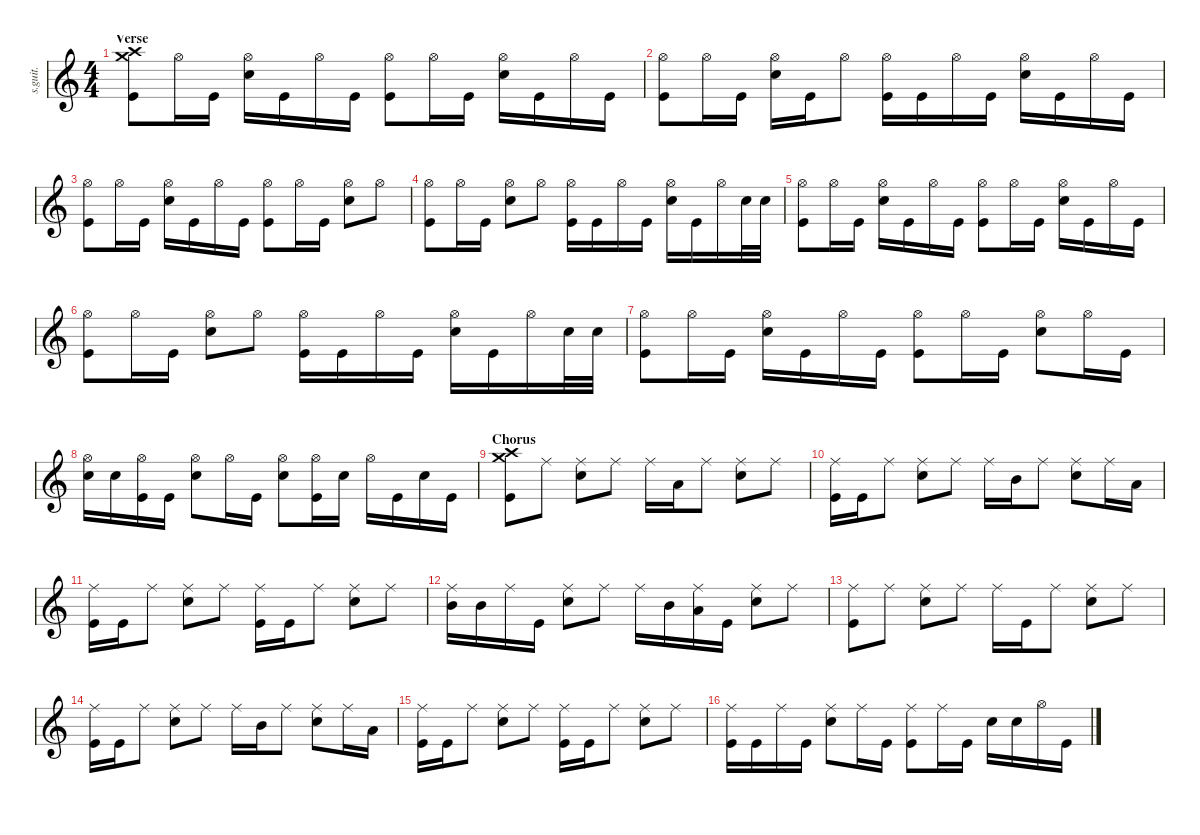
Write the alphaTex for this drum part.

\defaultSystemsLayout 4
\hideDynamics
\bracketExtendMode nobrackets
\track ("Abe Cunningham" "s.guit.") {instrument percussion}
\staff {score}
\articulation defaults
\ts (4 4)
\section ("" "Verse")
\tempo (93 hide)
\clef g2
\ks c
("Crash high (hit)" "Kick (hit)" "Crash medium (hit)").8{lyrics (0 "") lyrics (1 "") lyrics (2 "") lyrics (3 "") lyrics (4 "") dy fff} "Hi-Hat (open)".16{lyrics (0 "") lyrics (1 "") lyrics (2 "") lyrics (3 "") lyrics (4 "")} "Kick (hit)".16{lyrics (0 "") lyrics (1 "") lyrics (2 "") lyrics (3 "") lyrics (4 "")} ("Snare (hit) 2" "Hi-Hat (open)").16{lyrics (0 "") lyrics (1 "") lyrics (2 "") lyrics (3 "") lyrics (4 "")} "Kick (hit)".16{lyrics (0 "") lyrics (1 "") lyrics (2 "") lyrics (3 "") lyrics (4 "")} "Hi-Hat (open)".16{lyrics (0 "") lyrics (1 "") lyrics (2 "") lyrics (3 "") lyrics (4 "")} "Kick (hit)".16{lyrics (0 "") lyrics (1 "") lyrics (2 "") lyrics (3 "") lyrics (4 "")} ("Hi-Hat (open)" "Kick (hit)").8{lyrics (0 "") lyrics (1 "") lyrics (2 "") lyrics (3 "") lyrics (4 "")} "Hi-Hat (open)".16{lyrics (0 "") lyrics (1 "") lyrics (2 "") lyrics (3 "") lyrics (4 "")} "Kick (hit)".16{lyrics (0 "") lyrics (1 "") lyrics (2 "") lyrics (3 "") lyrics (4 "")} ("Hi-Hat (open)" "Snare (hit) 2").16{lyrics (0 "") lyrics (1 "") lyrics (2 "") lyrics (3 "") lyrics (4 "")} "Kick (hit)".16{lyrics (0 "") lyrics (1 "") lyrics (2 "") lyrics (3 "") lyrics (4 "")} "Hi-Hat (open)".16{lyrics (0 "") lyrics (1 "") lyrics (2 "") lyrics (3 "") lyrics (4 "")} "Kick (hit)".16{lyrics (0 "") lyrics (1 "") lyrics (2 "") lyrics (3 "") lyrics (4 "")} |
("Kick (hit)" "Hi-Hat (open)").8{lyrics (0 "") lyrics (1 "") lyrics (2 "") lyrics (3 "") lyrics (4 "")} "Hi-Hat (open)".16{lyrics (0 "") lyrics (1 "") lyrics (2 "") lyrics (3 "") lyrics (4 "")} "Kick (hit)".16{lyrics (0 "") lyrics (1 "") lyrics (2 "") lyrics (3 "") lyrics (4 "")} ("Snare (hit) 2" "Hi-Hat (open)").16{lyrics (0 "") lyrics (1 "") lyrics (2 "") lyrics (3 "") lyrics (4 "")} "Kick (hit)".16{lyrics (0 "") lyrics (1 "") lyrics (2 "") lyrics (3 "") lyrics (4 "")} "Hi-Hat (open)".8{lyrics (0 "") lyrics (1 "") lyrics (2 "") lyrics (3 "") lyrics (4 "")} ("Hi-Hat (open)" "Kick (hit)").16{lyrics (0 "") lyrics (1 "") lyrics (2 "") lyrics (3 "") lyrics (4 "")} "Kick (hit)".16{lyrics (0 "") lyrics (1 "") lyrics (2 "") lyrics (3 "") lyrics (4 "")} "Hi-Hat (open)".16{lyrics (0 "") lyrics (1 "") lyrics (2 "") lyrics (3 "") lyrics (4 "")} "Kick (hit)".16{lyrics (0 "") lyrics (1 "") lyrics (2 "") lyrics (3 "") lyrics (4 "")} ("Hi-Hat (open)" "Snare (hit) 2").16{lyrics (0 "") lyrics (1 "") lyrics (2 "") lyrics (3 "") lyrics (4 "")} "Kick (hit)".16{lyrics (0 "") lyrics (1 "") lyrics (2 "") lyrics (3 "") lyrics (4 "")} "Hi-Hat (open)".16{lyrics (0 "") lyrics (1 "") lyrics (2 "") lyrics (3 "") lyrics (4 "")} "Kick (hit)".16{lyrics (0 "") lyrics (1 "") lyrics (2 "") lyrics (3 "") lyrics (4 "")} |
("Kick (hit)" "Hi-Hat (open)").8{lyrics (0 "") lyrics (1 "") lyrics (2 "") lyrics (3 "") lyrics (4 "")} "Hi-Hat (open)".16{lyrics (0 "") lyrics (1 "") lyrics (2 "") lyrics (3 "") lyrics (4 "")} "Kick (hit)".16{lyrics (0 "") lyrics (1 "") lyrics (2 "") lyrics (3 "") lyrics (4 "")} ("Snare (hit) 2" "Hi-Hat (open)").16{lyrics (0 "") lyrics (1 "") lyrics (2 "") lyrics (3 "") lyrics (4 "")} "Kick (hit)".16{lyrics (0 "") lyrics (1 "") lyrics (2 "") lyrics (3 "") lyrics (4 "")} "Hi-Hat (open)".16{lyrics (0 "") lyrics (1 "") lyrics (2 "") lyrics (3 "") lyrics (4 "")} "Kick (hit)".16{lyrics (0 "") lyrics (1 "") lyrics (2 "") lyrics (3 "") lyrics (4 "")} ("Hi-Hat (open)" "Kick (hit)").8{lyrics (0 "") lyrics (1 "") lyrics (2 "") lyrics (3 "") lyrics (4 "")} "Hi-Hat (open)".16{lyrics (0 "") lyrics (1 "") lyrics (2 "") lyrics (3 "") lyrics (4 "")} "Kick (hit)".16{lyrics (0 "") lyrics (1 "") lyrics (2 "") lyrics (3 "") lyrics (4 "")} ("Hi-Hat (open)" "Snare (hit) 2").8{lyrics (0 "") lyrics (1 "") lyrics (2 "") lyrics (3 "") lyrics (4 "")} "Hi-Hat (open)".8{lyrics (0 "") lyrics (1 "") lyrics (2 "") lyrics (3 "") lyrics (4 "")} |
("Kick (hit)" "Hi-Hat (open)").8{lyrics (0 "") lyrics (1 "") lyrics (2 "") lyrics (3 "") lyrics (4 "")} "Hi-Hat (open)".16{lyrics (0 "") lyrics (1 "") lyrics (2 "") lyrics (3 "") lyrics (4 "")} "Kick (hit)".16{lyrics (0 "") lyrics (1 "") lyrics (2 "") lyrics (3 "") lyrics (4 "")} ("Snare (hit) 2" "Hi-Hat (open)").8{lyrics (0 "") lyrics (1 "") lyrics (2 "") lyrics (3 "") lyrics (4 "")} "Hi-Hat (open)".8{lyrics (0 "") lyrics (1 "") lyrics (2 "") lyrics (3 "") lyrics (4 "")} ("Hi-Hat (open)" "Kick (hit)").16{lyrics (0 "") lyrics (1 "") lyrics (2 "") lyrics (3 "") lyrics (4 "")} "Kick (hit)".16{lyrics (0 "") lyrics (1 "") lyrics (2 "") lyrics (3 "") lyrics (4 "")} "Hi-Hat (open)".16{lyrics (0 "") lyrics (1 "") lyrics (2 "") lyrics (3 "") lyrics (4 "")} "Kick (hit)".16{lyrics (0 "") lyrics (1 "") lyrics (2 "") lyrics (3 "") lyrics (4 "")} ("Hi-Hat (open)" "Snare (hit) 2").16{lyrics (0 "") lyrics (1 "") lyrics (2 "") lyrics (3 "") lyrics (4 "")} "Kick (hit)".16{lyrics (0 "") lyrics (1 "") lyrics (2 "") lyrics (3 "") lyrics (4 "")} "Hi-Hat (open)".16{lyrics (0 "") lyrics (1 "") lyrics (2 "") lyrics (3 "") lyrics (4 "")} "Snare (hit) 2".32{lyrics (0 "") lyrics (1 "") lyrics (2 "") lyrics (3 "") lyrics (4 "")} "Snare (hit) 2".32{lyrics (0 "") lyrics (1 "") lyrics (2 "") lyrics (3 "") lyrics (4 "")} |
("Kick (hit)" "Hi-Hat (open)").8{lyrics (0 "") lyrics (1 "") lyrics (2 "") lyrics (3 "") lyrics (4 "")} "Hi-Hat (open)".16{lyrics (0 "") lyrics (1 "") lyrics (2 "") lyrics (3 "") lyrics (4 "")} "Kick (hit)".16{lyrics (0 "") lyrics (1 "") lyrics (2 "") lyrics (3 "") lyrics (4 "")} ("Snare (hit) 2" "Hi-Hat (open)").16{lyrics (0 "") lyrics (1 "") lyrics (2 "") lyrics (3 "") lyrics (4 "")} "Kick (hit)".16{lyrics (0 "") lyrics (1 "") lyrics (2 "") lyrics (3 "") lyrics (4 "")} "Hi-Hat (open)".16{lyrics (0 "") lyrics (1 "") lyrics (2 "") lyrics (3 "") lyrics (4 "")} "Kick (hit)".16{lyrics (0 "") lyrics (1 "") lyrics (2 "") lyrics (3 "") lyrics (4 "")} ("Hi-Hat (open)" "Kick (hit)").8{lyrics (0 "") lyrics (1 "") lyrics (2 "") lyrics (3 "") lyrics (4 "")} "Hi-Hat (open)".16{lyrics (0 "") lyrics (1 "") lyrics (2 "") lyrics (3 "") lyrics (4 "")} "Kick (hit)".16{lyrics (0 "") lyrics (1 "") lyrics (2 "") lyrics (3 "") lyrics (4 "")} ("Hi-Hat (open)" "Snare (hit) 2").16{lyrics (0 "") lyrics (1 "") lyrics (2 "") lyrics (3 "") lyrics (4 "")} "Kick (hit)".16{lyrics (0 "") lyrics (1 "") lyrics (2 "") lyrics (3 "") lyrics (4 "")} "Hi-Hat (open)".16{lyrics (0 "") lyrics (1 "") lyrics (2 "") lyrics (3 "") lyrics (4 "")} "Kick (hit)".16{lyrics (0 "") lyrics (1 "") lyrics (2 "") lyrics (3 "") lyrics (4 "")} |
("Kick (hit)" "Hi-Hat (open)").8{lyrics (0 "") lyrics (1 "") lyrics (2 "") lyrics (3 "") lyrics (4 "")} "Hi-Hat (open)".16{lyrics (0 "") lyrics (1 "") lyrics (2 "") lyrics (3 "") lyrics (4 "")} "Kick (hit)".16{lyrics (0 "") lyrics (1 "") lyrics (2 "") lyrics (3 "") lyrics (4 "")} ("Snare (hit) 2" "Hi-Hat (open)").8{lyrics (0 "") lyrics (1 "") lyrics (2 "") lyrics (3 "") lyrics (4 "")} "Hi-Hat (open)".8{lyrics (0 "") lyrics (1 "") lyrics (2 "") lyrics (3 "") lyrics (4 "")} ("Hi-Hat (open)" "Kick (hit)").16{lyrics (0 "") lyrics (1 "") lyrics (2 "") lyrics (3 "") lyrics (4 "")} "Kick (hit)".16{lyrics (0 "") lyrics (1 "") lyrics (2 "") lyrics (3 "") lyrics (4 "")} "Hi-Hat (open)".16{lyrics (0 "") lyrics (1 "") lyrics (2 "") lyrics (3 "") lyrics (4 "")} "Kick (hit)".16{lyrics (0 "") lyrics (1 "") lyrics (2 "") lyrics (3 "") lyrics (4 "")} ("Hi-Hat (open)" "Snare (hit) 2").16{lyrics (0 "") lyrics (1 "") lyrics (2 "") lyrics (3 "") lyrics (4 "")} "Kick (hit)".16{lyrics (0 "") lyrics (1 "") lyrics (2 "") lyrics (3 "") lyrics (4 "")} "Hi-Hat (open)".16{lyrics (0 "") lyrics (1 "") lyrics (2 "") lyrics (3 "") lyrics (4 "")} "Snare (hit) 2".32{lyrics (0 "") lyrics (1 "") lyrics (2 "") lyrics (3 "") lyrics (4 "")} "Snare (hit) 2".32{lyrics (0 "") lyrics (1 "") lyrics (2 "") lyrics (3 "") lyrics (4 "")} |
("Kick (hit)" "Hi-Hat (open)").8{lyrics (0 "") lyrics (1 "") lyrics (2 "") lyrics (3 "") lyrics (4 "")} "Hi-Hat (open)".16{lyrics (0 "") lyrics (1 "") lyrics (2 "") lyrics (3 "") lyrics (4 "")} "Kick (hit)".16{lyrics (0 "") lyrics (1 "") lyrics (2 "") lyrics (3 "") lyrics (4 "")} ("Snare (hit) 2" "Hi-Hat (open)").16{lyrics (0 "") lyrics (1 "") lyrics (2 "") lyrics (3 "") lyrics (4 "")} "Kick (hit)".16{lyrics (0 "") lyrics (1 "") lyrics (2 "") lyrics (3 "") lyrics (4 "")} "Hi-Hat (open)".16{lyrics (0 "") lyrics (1 "") lyrics (2 "") lyrics (3 "") lyrics (4 "")} "Kick (hit)".16{lyrics (0 "") lyrics (1 "") lyrics (2 "") lyrics (3 "") lyrics (4 "")} ("Hi-Hat (open)" "Kick (hit)").8{lyrics (0 "") lyrics (1 "") lyrics (2 "") lyrics (3 "") lyrics (4 "")} "Hi-Hat (open)".16{lyrics (0 "") lyrics (1 "") lyrics (2 "") lyrics (3 "") lyrics (4 "")} "Kick (hit)".16{lyrics (0 "") lyrics (1 "") lyrics (2 "") lyrics (3 "") lyrics (4 "")} ("Hi-Hat (open)" "Snare (hit) 2").8{lyrics (0 "") lyrics (1 "") lyrics (2 "") lyrics (3 "") lyrics (4 "")} "Hi-Hat (open)".16{lyrics (0 "") lyrics (1 "") lyrics (2 "") lyrics (3 "") lyrics (4 "")} "Kick (hit)".16{lyrics (0 "") lyrics (1 "") lyrics (2 "") lyrics (3 "") lyrics (4 "")} |
("Snare (hit) 2" "Hi-Hat (open)").16{lyrics (0 "") lyrics (1 "") lyrics (2 "") lyrics (3 "") lyrics (4 "")} "Snare (hit) 2".16{lyrics (0 "") lyrics (1 "") lyrics (2 "") lyrics (3 "") lyrics (4 "")} ("Kick (hit)" "Hi-Hat (open)").16{lyrics (0 "") lyrics (1 "") lyrics (2 "") lyrics (3 "") lyrics (4 "")} "Kick (hit)".16{lyrics (0 "") lyrics (1 "") lyrics (2 "") lyrics (3 "") lyrics (4 "")} ("Snare (hit) 2" "Hi-Hat (open)").8{lyrics (0 "") lyrics (1 "") lyrics (2 "") lyrics (3 "") lyrics (4 "")} "Hi-Hat (open)".16{lyrics (0 "") lyrics (1 "") lyrics (2 "") lyrics (3 "") lyrics (4 "")} "Kick (hit)".16{lyrics (0 "") lyrics (1 "") lyrics (2 "") lyrics (3 "") lyrics (4 "")} ("Hi-Hat (open)" "Snare (hit) 2").8{lyrics (0 "") lyrics (1 "") lyrics (2 "") lyrics (3 "") lyrics (4 "")} ("Kick (hit)" "Hi-Hat (open)").16{lyrics (0 "") lyrics (1 "") lyrics (2 "") lyrics (3 "") lyrics (4 "")} "Snare (hit) 2".16{lyrics (0 "") lyrics (1 "") lyrics (2 "") lyrics (3 "") lyrics (4 "")} "Hi-Hat (open)".16{lyrics (0 "") lyrics (1 "") lyrics (2 "") lyrics (3 "") lyrics (4 "")} "Kick (hit)".16{lyrics (0 "") lyrics (1 "") lyrics (2 "") lyrics (3 "") lyrics (4 "")} "Snare (hit) 2".16{lyrics (0 "") lyrics (1 "") lyrics (2 "") lyrics (3 "") lyrics (4 "")} "Kick (hit)".16{lyrics (0 "") lyrics (1 "") lyrics (2 "") lyrics (3 "") lyrics (4 "")} |
\section ("" "Chorus")
("Kick (hit)" "Crash high (hit)" "Crash medium (hit)").8{lyrics (0 "") lyrics (1 "") lyrics (2 "") lyrics (3 "") lyrics (4 "")} "Ride (middle)".8{lyrics (0 "") lyrics (1 "") lyrics (2 "") lyrics (3 "") lyrics (4 "")} ("Ride (middle)" "Snare (hit) 2").8{lyrics (0 "") lyrics (1 "") lyrics (2 "") lyrics (3 "") lyrics (4 "")} "Ride (middle)".8{lyrics (0 "") lyrics (1 "") lyrics (2 "") lyrics (3 "") lyrics (4 "")} "Ride (middle)".16{lyrics (0 "") lyrics (1 "") lyrics (2 "") lyrics (3 "") lyrics (4 "")} "Low Tom (hit)".16{lyrics (0 "") lyrics (1 "") lyrics (2 "") lyrics (3 "") lyrics (4 "")} "Ride (middle)".8{lyrics (0 "") lyrics (1 "") lyrics (2 "") lyrics (3 "") lyrics (4 "")} ("Ride (middle)" "Snare (hit) 2").8{lyrics (0 "") lyrics (1 "") lyrics (2 "") lyrics (3 "") lyrics (4 "")} "Ride (middle)".8{lyrics (0 "") lyrics (1 "") lyrics (2 "") lyrics (3 "") lyrics (4 "")} |
("Kick (hit)" "Ride (middle)").16{lyrics (0 "") lyrics (1 "") lyrics (2 "") lyrics (3 "") lyrics (4 "")} "Kick (hit)".16{lyrics (0 "") lyrics (1 "") lyrics (2 "") lyrics (3 "") lyrics (4 "")} "Ride (middle)".8{lyrics (0 "") lyrics (1 "") lyrics (2 "") lyrics (3 "") lyrics (4 "")} ("Ride (middle)" "Snare (hit) 2").8{lyrics (0 "") lyrics (1 "") lyrics (2 "") lyrics (3 "") lyrics (4 "")} "Ride (middle)".8{lyrics (0 "") lyrics (1 "") lyrics (2 "") lyrics (3 "") lyrics (4 "")} "Ride (middle)".16{lyrics (0 "") lyrics (1 "") lyrics (2 "") lyrics (3 "") lyrics (4 "")} "Mid Tom (hit)".16{lyrics (0 "") lyrics (1 "") lyrics (2 "") lyrics (3 "") lyrics (4 "")} "Ride (middle)".8{lyrics (0 "") lyrics (1 "") lyrics (2 "") lyrics (3 "") lyrics (4 "")} ("Ride (middle)" "Snare (hit) 2").8{lyrics (0 "") lyrics (1 "") lyrics (2 "") lyrics (3 "") lyrics (4 "")} "Ride (middle)".16{lyrics (0 "") lyrics (1 "") lyrics (2 "") lyrics (3 "") lyrics (4 "")} "Low Tom (hit)".16{lyrics (0 "") lyrics (1 "") lyrics (2 "") lyrics (3 "") lyrics (4 "")} |
("Kick (hit)" "Ride (middle)").16{lyrics (0 "") lyrics (1 "") lyrics (2 "") lyrics (3 "") lyrics (4 "")} "Kick (hit)".16{lyrics (0 "") lyrics (1 "") lyrics (2 "") lyrics (3 "") lyrics (4 "")} "Ride (middle)".8{lyrics (0 "") lyrics (1 "") lyrics (2 "") lyrics (3 "") lyrics (4 "")} ("Ride (middle)" "Snare (hit) 2").8{lyrics (0 "") lyrics (1 "") lyrics (2 "") lyrics (3 "") lyrics (4 "")} "Ride (middle)".8{lyrics (0 "") lyrics (1 "") lyrics (2 "") lyrics (3 "") lyrics (4 "")} ("Ride (middle)" "Kick (hit)").16{lyrics (0 "") lyrics (1 "") lyrics (2 "") lyrics (3 "") lyrics (4 "")} "Kick (hit)".16{lyrics (0 "") lyrics (1 "") lyrics (2 "") lyrics (3 "") lyrics (4 "")} "Ride (middle)".8{lyrics (0 "") lyrics (1 "") lyrics (2 "") lyrics (3 "") lyrics (4 "")} ("Ride (middle)" "Snare (hit) 2").8{lyrics (0 "") lyrics (1 "") lyrics (2 "") lyrics (3 "") lyrics (4 "")} "Ride (middle)".8{lyrics (0 "") lyrics (1 "") lyrics (2 "") lyrics (3 "") lyrics (4 "")} |
("Ride (middle)" "Mid Tom (hit)").16{lyrics (0 "") lyrics (1 "") lyrics (2 "") lyrics (3 "") lyrics (4 "")} "Mid Tom (hit)".16{lyrics (0 "") lyrics (1 "") lyrics (2 "") lyrics (3 "") lyrics (4 "")} "Ride (middle)".16{lyrics (0 "") lyrics (1 "") lyrics (2 "") lyrics (3 "") lyrics (4 "")} "Kick (hit)".16{lyrics (0 "") lyrics (1 "") lyrics (2 "") lyrics (3 "") lyrics (4 "")} ("Ride (middle)" "Snare (hit) 2").8{lyrics (0 "") lyrics (1 "") lyrics (2 "") lyrics (3 "") lyrics (4 "")} "Ride (middle)".8{lyrics (0 "") lyrics (1 "") lyrics (2 "") lyrics (3 "") lyrics (4 "")} "Ride (middle)".16{lyrics (0 "") lyrics (1 "") lyrics (2 "") lyrics (3 "") lyrics (4 "")} "Mid Tom (hit)".16{lyrics (0 "") lyrics (1 "") lyrics (2 "") lyrics (3 "") lyrics (4 "")} ("Ride (middle)" "Low Tom (hit)").16{lyrics (0 "") lyrics (1 "") lyrics (2 "") lyrics (3 "") lyrics (4 "")} "Kick (hit)".16{lyrics (0 "") lyrics (1 "") lyrics (2 "") lyrics (3 "") lyrics (4 "")} ("Ride (middle)" "Snare (hit) 2").8{lyrics (0 "") lyrics (1 "") lyrics (2 "") lyrics (3 "") lyrics (4 "")} "Ride (middle)".8{lyrics (0 "") lyrics (1 "") lyrics (2 "") lyrics (3 "") lyrics (4 "")} |
("Kick (hit)" "Ride (middle)").8{lyrics (0 "") lyrics (1 "") lyrics (2 "") lyrics (3 "") lyrics (4 "")} "Ride (middle)".8{lyrics (0 "") lyrics (1 "") lyrics (2 "") lyrics (3 "") lyrics (4 "")} ("Ride (middle)" "Snare (hit) 2").8{lyrics (0 "") lyrics (1 "") lyrics (2 "") lyrics (3 "") lyrics (4 "")} "Ride (middle)".8{lyrics (0 "") lyrics (1 "") lyrics (2 "") lyrics (3 "") lyrics (4 "")} "Ride (middle)".16{lyrics (0 "") lyrics (1 "") lyrics (2 "") lyrics (3 "") lyrics (4 "")} "Kick (hit)".16{lyrics (0 "") lyrics (1 "") lyrics (2 "") lyrics (3 "") lyrics (4 "")} "Ride (middle)".8{lyrics (0 "") lyrics (1 "") lyrics (2 "") lyrics (3 "") lyrics (4 "")} ("Ride (middle)" "Snare (hit) 2").8{lyrics (0 "") lyrics (1 "") lyrics (2 "") lyrics (3 "") lyrics (4 "")} "Ride (middle)".8{lyrics (0 "") lyrics (1 "") lyrics (2 "") lyrics (3 "") lyrics (4 "")} |
("Kick (hit)" "Ride (middle)").16{lyrics (0 "") lyrics (1 "") lyrics (2 "") lyrics (3 "") lyrics (4 "")} "Kick (hit)".16{lyrics (0 "") lyrics (1 "") lyrics (2 "") lyrics (3 "") lyrics (4 "")} "Ride (middle)".8{lyrics (0 "") lyrics (1 "") lyrics (2 "") lyrics (3 "") lyrics (4 "")} ("Ride (middle)" "Snare (hit) 2").8{lyrics (0 "") lyrics (1 "") lyrics (2 "") lyrics (3 "") lyrics (4 "")} "Ride (middle)".8{lyrics (0 "") lyrics (1 "") lyrics (2 "") lyrics (3 "") lyrics (4 "")} "Ride (middle)".16{lyrics (0 "") lyrics (1 "") lyrics (2 "") lyrics (3 "") lyrics (4 "")} "Mid Tom (hit)".16{lyrics (0 "") lyrics (1 "") lyrics (2 "") lyrics (3 "") lyrics (4 "")} "Ride (middle)".8{lyrics (0 "") lyrics (1 "") lyrics (2 "") lyrics (3 "") lyrics (4 "")} ("Ride (middle)" "Snare (hit) 2").8{lyrics (0 "") lyrics (1 "") lyrics (2 "") lyrics (3 "") lyrics (4 "")} "Ride (middle)".16{lyrics (0 "") lyrics (1 "") lyrics (2 "") lyrics (3 "") lyrics (4 "")} "Low Tom (hit)".16{lyrics (0 "") lyrics (1 "") lyrics (2 "") lyrics (3 "") lyrics (4 "")} |
("Kick (hit)" "Ride (middle)").16{lyrics (0 "") lyrics (1 "") lyrics (2 "") lyrics (3 "") lyrics (4 "")} "Kick (hit)".16{lyrics (0 "") lyrics (1 "") lyrics (2 "") lyrics (3 "") lyrics (4 "")} "Ride (middle)".8{lyrics (0 "") lyrics (1 "") lyrics (2 "") lyrics (3 "") lyrics (4 "")} ("Ride (middle)" "Snare (hit) 2").8{lyrics (0 "") lyrics (1 "") lyrics (2 "") lyrics (3 "") lyrics (4 "")} "Ride (middle)".8{lyrics (0 "") lyrics (1 "") lyrics (2 "") lyrics (3 "") lyrics (4 "")} ("Ride (middle)" "Kick (hit)").16{lyrics (0 "") lyrics (1 "") lyrics (2 "") lyrics (3 "") lyrics (4 "")} "Kick (hit)".16{lyrics (0 "") lyrics (1 "") lyrics (2 "") lyrics (3 "") lyrics (4 "")} "Ride (middle)".8{lyrics (0 "") lyrics (1 "") lyrics (2 "") lyrics (3 "") lyrics (4 "")} ("Ride (middle)" "Snare (hit) 2").8{lyrics (0 "") lyrics (1 "") lyrics (2 "") lyrics (3 "") lyrics (4 "")} "Ride (middle)".8{lyrics (0 "") lyrics (1 "") lyrics (2 "") lyrics (3 "") lyrics (4 "")} |
("Kick (hit)" "Ride (middle)").16{lyrics (0 "") lyrics (1 "") lyrics (2 "") lyrics (3 "") lyrics (4 "")} "Kick (hit)".16{lyrics (0 "") lyrics (1 "") lyrics (2 "") lyrics (3 "") lyrics (4 "")} "Ride (middle)".16{lyrics (0 "") lyrics (1 "") lyrics (2 "") lyrics (3 "") lyrics (4 "")} "Kick (hit)".16{lyrics (0 "") lyrics (1 "") lyrics (2 "") lyrics (3 "") lyrics (4 "")} ("Ride (middle)" "Snare (hit) 2").8{lyrics (0 "") lyrics (1 "") lyrics (2 "") lyrics (3 "") lyrics (4 "")} "Ride (middle)".16{lyrics (0 "") lyrics (1 "") lyrics (2 "") lyrics (3 "") lyrics (4 "")} "Kick (hit)".16{lyrics (0 "") lyrics (1 "") lyrics (2 "") lyrics (3 "") lyrics (4 "")} ("Ride (middle)" "Kick (hit)").8{lyrics (0 "") lyrics (1 "") lyrics (2 "") lyrics (3 "") lyrics (4 "")} "Ride (middle)".16{lyrics (0 "") lyrics (1 "") lyrics (2 "") lyrics (3 "") lyrics (4 "")} "Kick (hit)".16{lyrics (0 "") lyrics (1 "") lyrics (2 "") lyrics (3 "") lyrics (4 "")} "Snare (hit) 2".16{lyrics (0 "") lyrics (1 "") lyrics (2 "") lyrics (3 "") lyrics (4 "")} "Snare (hit) 2".16{lyrics (0 "") lyrics (1 "") lyrics (2 "") lyrics (3 "") lyrics (4 "")} "Hi-Hat (open)".16{lyrics (0 "") lyrics (1 "") lyrics (2 "") lyrics (3 "") lyrics (4 "")} "Kick (hit)".16{lyrics (0 "") lyrics (1 "") lyrics (2 "") lyrics (3 "") lyrics (4 "")}
